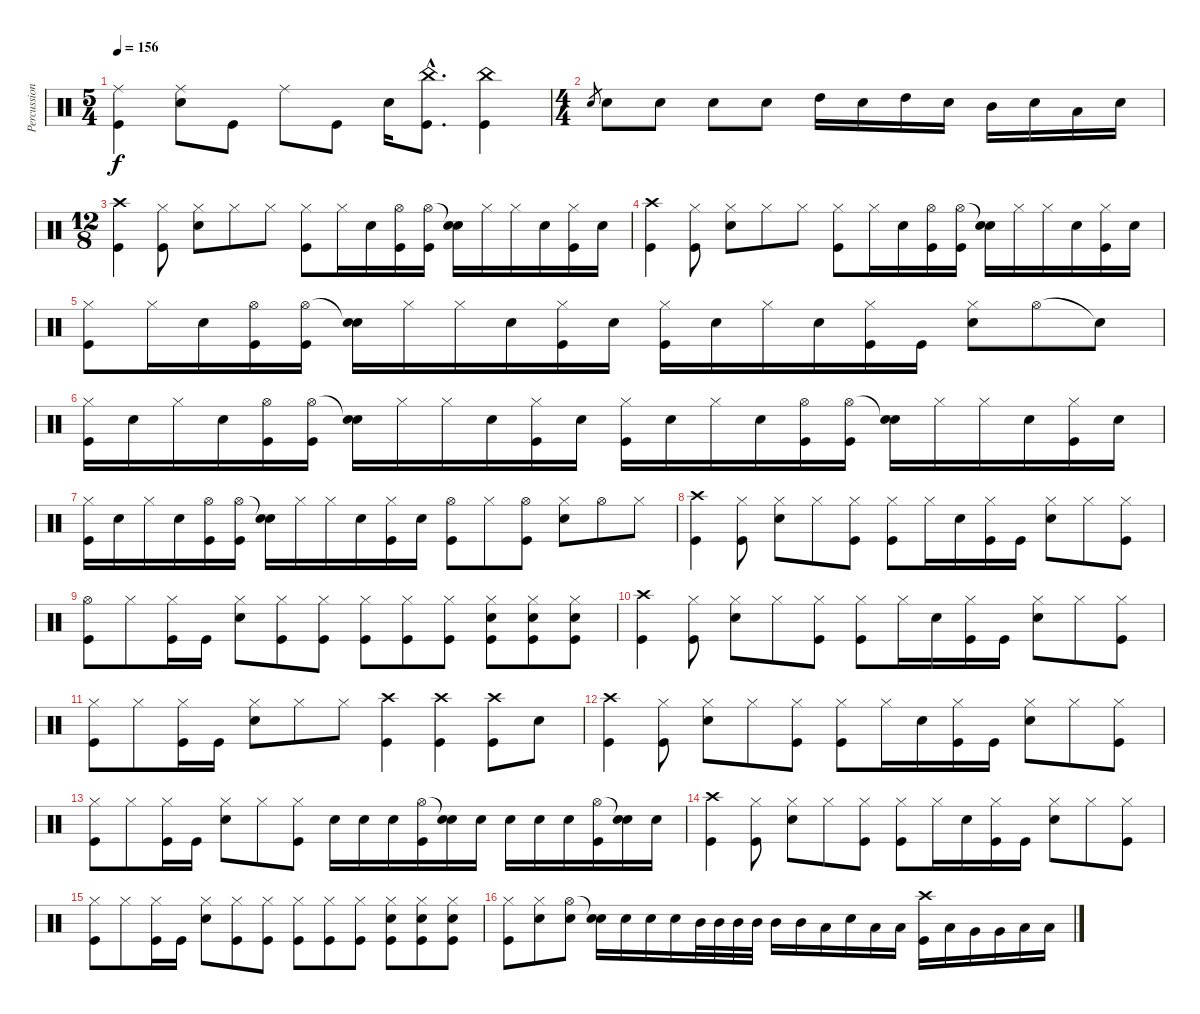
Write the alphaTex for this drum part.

\track ("Percussion" "Percussion") {instrument percussion}
\staff {score}
\articulation defaults
\ts (5 4)
\tempo 156
\clef neutral
\ks c
("Ride (middle)" "Kick (hit)").4{dy f} ("Ride (middle)" "Electric Snare (hit)").8 "Kick (hit)".8 "Ride (middle)".8 "Kick (hit)".8 "Electric Snare (hit)".16 ("China (hit)"{hac} "Kick (hit)"{hac}).8{d} ("China (hit)" "Kick (hit)").4 |
\ts (4 4)
"Snare (hit) 2".8{gr} "Electric Snare (hit)".8 "Electric Snare (hit)".8 "Electric Snare (hit)".8 "Electric Snare (hit)".8 "High Tom (hit)".16 "Electric Snare (hit)".16 "High Tom (hit)".16 "Electric Snare (hit)".16 "Mid Tom (hit)".16 "Electric Snare (hit)".16 "Low Tom (hit)".16 "Electric Snare (hit)".16 |
\ts (12 8)
("Crash high (hit)" "Kick (hit)").4 ("Hi-Hat (closed)" "Kick (hit)").8 ("Hi-Hat (closed)" "Electric Snare (hit)").8 "Hi-Hat (closed)".8 "Hi-Hat (closed)".8 ("Hi-Hat (closed)" "Kick (hit)").8 "Hi-Hat (closed)".16 "Electric Snare (hit)".16 ("Hi-Hat (open)" "Kick (hit)").16 ("Hi-Hat (open)" "Kick (hit)").16 ("Snare (hit)"{t} "Electric Snare (hit)").16 "Hi-Hat (closed)".16 "Hi-Hat (closed)".16 "Electric Snare (hit)".16 ("Hi-Hat (closed)" "Kick (hit)").16 "Electric Snare (hit)".16 |
("Crash high (hit)" "Kick (hit)").4 ("Hi-Hat (closed)" "Kick (hit)").8 ("Hi-Hat (closed)" "Electric Snare (hit)").8 "Hi-Hat (closed)".8 "Hi-Hat (closed)".8 ("Hi-Hat (closed)" "Kick (hit)").8 "Hi-Hat (closed)".16 "Electric Snare (hit)".16 ("Hi-Hat (open)" "Kick (hit)").16 ("Hi-Hat (open)" "Kick (hit)").16 ("Snare (hit)"{t} "Electric Snare (hit)").16 "Hi-Hat (closed)".16 "Hi-Hat (closed)".16 "Electric Snare (hit)".16 ("Hi-Hat (closed)" "Kick (hit)").16 "Electric Snare (hit)".16 |
("Hi-Hat (closed)" "Kick (hit)").8 "Hi-Hat (closed)".16 "Electric Snare (hit)".16 ("Hi-Hat (open)" "Kick (hit)").16 ("Hi-Hat (open)" "Kick (hit)").16 ("Snare (hit)"{t} "Electric Snare (hit)").16 "Hi-Hat (closed)".16 "Hi-Hat (closed)".16 "Electric Snare (hit)".16 ("Hi-Hat (closed)" "Kick (hit)").16 "Electric Snare (hit)".16 ("Hi-Hat (closed)" "Kick (hit)").16 "Electric Snare (hit)".16 "Hi-Hat (closed)".16 "Electric Snare (hit)".16 ("Hi-Hat (closed)" "Kick (hit)").16 "Kick (hit)".16 ("Hi-Hat (closed)" "Electric Snare (hit)").8 "Hi-Hat (open)".8 "Snare (hit)"{t}.8 |
("Hi-Hat (closed)" "Kick (hit)").16 "Electric Snare (hit)".16 "Hi-Hat (closed)".16 "Electric Snare (hit)".16 ("Hi-Hat (open)" "Kick (hit)").16 ("Hi-Hat (open)" "Kick (hit)").16 ("Snare (hit)"{t} "Electric Snare (hit)").16 "Hi-Hat (closed)".16 "Hi-Hat (closed)".16 "Electric Snare (hit)".16 ("Hi-Hat (closed)" "Kick (hit)").16 "Electric Snare (hit)".16 ("Hi-Hat (closed)" "Kick (hit)").16 "Electric Snare (hit)".16 "Hi-Hat (closed)".16 "Electric Snare (hit)".16 ("Hi-Hat (open)" "Kick (hit)").16 ("Hi-Hat (open)" "Kick (hit)").16 ("Snare (hit)"{t} "Electric Snare (hit)").16 "Hi-Hat (closed)".16 "Hi-Hat (closed)".16 "Electric Snare (hit)".16 ("Hi-Hat (closed)" "Kick (hit)").16 "Electric Snare (hit)".16 |
("Hi-Hat (closed)" "Kick (hit)").16 "Electric Snare (hit)".16 "Hi-Hat (closed)".16 "Electric Snare (hit)".16 ("Hi-Hat (open)" "Kick (hit)").16 ("Hi-Hat (open)" "Kick (hit)").16 ("Snare (hit)"{t} "Electric Snare (hit)").16 "Hi-Hat (closed)".16 "Hi-Hat (closed)".16 "Electric Snare (hit)".16 ("Hi-Hat (closed)" "Kick (hit)").16 "Electric Snare (hit)".16 ("Hi-Hat (open)" "Kick (hit)").8 "Hi-Hat (closed)".8 ("Hi-Hat (open)" "Kick (hit)").8 ("Hi-Hat (closed)" "Electric Snare (hit)").8 "Hi-Hat (open)".8 "Hi-Hat (closed)".8 |
("Crash high (hit)" "Kick (hit)").4 ("Hi-Hat (closed)" "Kick (hit)").8 ("Hi-Hat (closed)" "Electric Snare (hit)").8 "Hi-Hat (closed)".8 ("Hi-Hat (closed)" "Kick (hit)").8 ("Hi-Hat (closed)" "Kick (hit)").8 "Hi-Hat (closed)".16 "Electric Snare (hit)".16 ("Hi-Hat (closed)" "Kick (hit)").16 "Kick (hit)".16 ("Hi-Hat (closed)" "Electric Snare (hit)").8 "Hi-Hat (closed)".8 ("Hi-Hat (closed)" "Kick (hit)").8 |
("Hi-Hat (open)" "Kick (hit)").8 "Hi-Hat (closed)".8 ("Hi-Hat (closed)" "Kick (hit)").16 "Kick (hit)".16 ("Hi-Hat (closed)" "Electric Snare (hit)").8 ("Hi-Hat (closed)" "Kick (hit)").8 ("Hi-Hat (closed)" "Kick (hit)").8 ("Hi-Hat (closed)" "Kick (hit)").8 ("Hi-Hat (closed)" "Kick (hit)").8 ("Hi-Hat (closed)" "Kick (hit)").8 ("Hi-Hat (closed)" "Electric Snare (hit)" "Kick (hit)").8 ("Hi-Hat (closed)" "Electric Snare (hit)" "Kick (hit)").8 ("Hi-Hat (closed)" "Electric Snare (hit)" "Kick (hit)").8 |
("Crash high (hit)" "Kick (hit)").4 ("Hi-Hat (closed)" "Kick (hit)").8 ("Hi-Hat (closed)" "Electric Snare (hit)").8 "Hi-Hat (closed)".8 ("Hi-Hat (closed)" "Kick (hit)").8 ("Hi-Hat (closed)" "Kick (hit)").8 "Hi-Hat (closed)".16 "Electric Snare (hit)".16 ("Hi-Hat (closed)" "Kick (hit)").16 "Kick (hit)".16 ("Hi-Hat (closed)" "Electric Snare (hit)").8 "Hi-Hat (closed)".8 ("Hi-Hat (closed)" "Kick (hit)").8 |
("Hi-Hat (closed)" "Kick (hit)").8 "Hi-Hat (closed)".8 ("Hi-Hat (closed)" "Kick (hit)").16 "Kick (hit)".16 ("Hi-Hat (closed)" "Electric Snare (hit)").8 "Hi-Hat (closed)".8 "Hi-Hat (closed)".8 ("Crash high (hit)" "Kick (hit)").4 ("Crash high (hit)" "Kick (hit)").4 ("Crash high (hit)" "Kick (hit)").8 "Electric Snare (hit)".8 |
("Crash high (hit)" "Kick (hit)").4 ("Hi-Hat (closed)" "Kick (hit)").8 ("Hi-Hat (closed)" "Electric Snare (hit)").8 "Hi-Hat (closed)".8 ("Hi-Hat (closed)" "Kick (hit)").8 ("Hi-Hat (closed)" "Kick (hit)").8 "Hi-Hat (closed)".16 "Electric Snare (hit)".16 ("Hi-Hat (closed)" "Kick (hit)").16 "Kick (hit)".16 ("Hi-Hat (closed)" "Electric Snare (hit)").8 "Hi-Hat (closed)".8 ("Hi-Hat (closed)" "Kick (hit)").8 |
("Hi-Hat (closed)" "Kick (hit)").8 "Hi-Hat (closed)".8 ("Hi-Hat (closed)" "Kick (hit)").16 "Kick (hit)".16 ("Hi-Hat (closed)" "Electric Snare (hit)").8 "Hi-Hat (closed)".8 ("Hi-Hat (closed)" "Kick (hit)").8 "Electric Snare (hit)".16 "Electric Snare (hit)".16 "Electric Snare (hit)".16 ("Hi-Hat (open)" "Kick (hit)").16 ("Snare (hit)"{t} "Electric Snare (hit)").16 "Electric Snare (hit)".16 "Electric Snare (hit)".16 "Electric Snare (hit)".16 "Electric Snare (hit)".16 ("Hi-Hat (open)" "Kick (hit)").16 ("Snare (hit)"{t} "Electric Snare (hit)").16 "Electric Snare (hit)".16 |
("Crash high (hit)" "Kick (hit)").4 ("Hi-Hat (closed)" "Kick (hit)").8 ("Hi-Hat (closed)" "Electric Snare (hit)").8 "Hi-Hat (closed)".8 ("Hi-Hat (closed)" "Kick (hit)").8 ("Hi-Hat (closed)" "Kick (hit)").8 "Hi-Hat (closed)".16 "Electric Snare (hit)".16 ("Hi-Hat (closed)" "Kick (hit)").16 "Kick (hit)".16 ("Hi-Hat (closed)" "Electric Snare (hit)").8 "Hi-Hat (closed)".8 ("Hi-Hat (closed)" "Kick (hit)").8 |
("Hi-Hat (closed)" "Kick (hit)").8 "Hi-Hat (closed)".8 ("Hi-Hat (closed)" "Kick (hit)").16 "Kick (hit)".16 ("Hi-Hat (closed)" "Electric Snare (hit)").8 ("Hi-Hat (closed)" "Kick (hit)").8 ("Hi-Hat (closed)" "Kick (hit)").8 ("Hi-Hat (closed)" "Kick (hit)").8 ("Hi-Hat (closed)" "Kick (hit)").8 ("Hi-Hat (closed)" "Kick (hit)").8 ("Hi-Hat (closed)" "Electric Snare (hit)" "Kick (hit)").8 ("Hi-Hat (closed)" "Electric Snare (hit)" "Kick (hit)").8 ("Hi-Hat (closed)" "Electric Snare (hit)" "Kick (hit)").8 |
("Hi-Hat (closed)" "Kick (hit)").8 ("Hi-Hat (closed)" "Electric Snare (hit)").8 ("Hi-Hat (open)" "Electric Snare (hit)").8 ("Snare (hit)"{t} "Electric Snare (hit)").16 "Electric Snare (hit)".16 "Electric Snare (hit)".16 "Electric Snare (hit)".16 "Mid Tom (hit)".32 "Mid Tom (hit)".32 "Mid Tom (hit)".32 "Mid Tom (hit)".32 "Mid Tom (hit)".16 "Mid Tom (hit)".16 "Low Tom (hit)".16 "Electric Snare (hit)".16 "Low Tom (hit)".16 "Low Tom (hit)".16 ("Crash high (hit)" "Kick (hit)").16 "Low Tom (hit)".16 "Very Low Tom (hit)".16 "Very Low Tom (hit)".16 "Low Floor Tom (hit)".16 "Low Floor Tom (hit)".16
